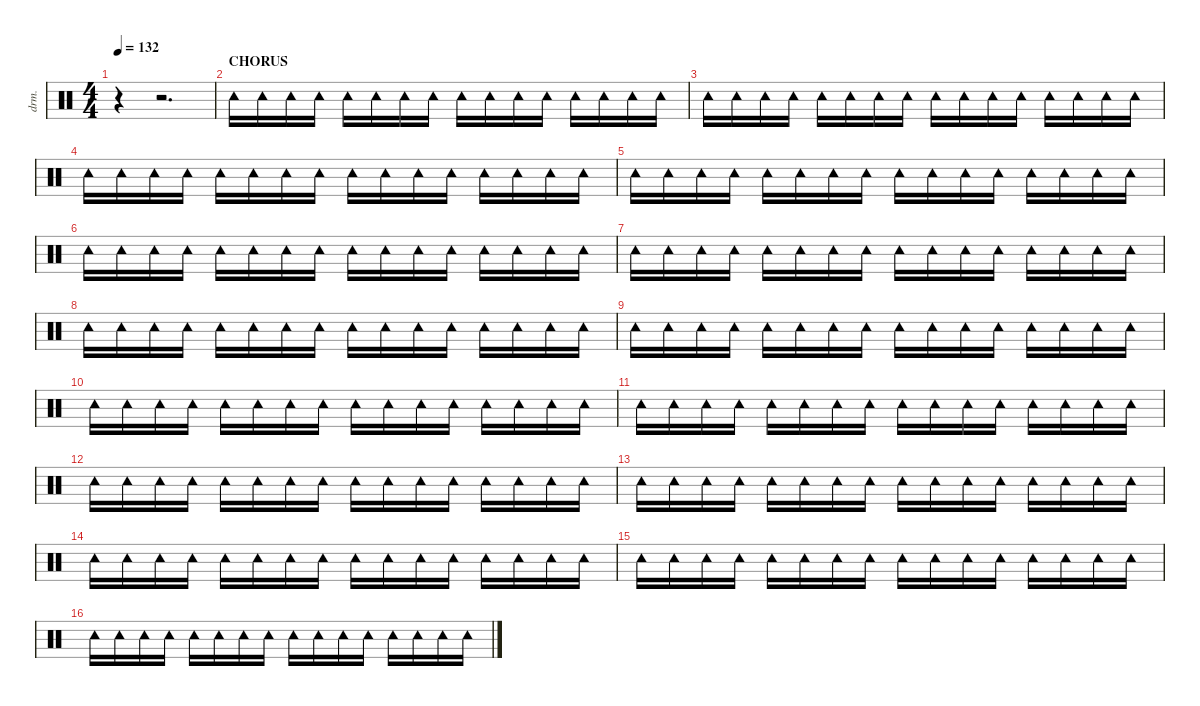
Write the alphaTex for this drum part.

\defaultSystemsLayout 4
\hideDynamics
\bracketExtendMode nobrackets
\otherSystemsTrackNameOrientation horizontal
\track ("Percussion" "drm.") {instrument percussion}
\staff {score}
\articulation defaults
\ts (4 4)
\tempo 132
\clef neutral
\ks c
r.4{dy fff beam Down} r.2{d beam Down} |
\section ("" "CHORUS")
"Tambourine (hit)".16{dy f beam Down} "Tambourine (hit)".16{beam Down} "Tambourine (hit)".16{beam Down} "Tambourine (hit)".16{beam Down} "Tambourine (hit)".16{dy fff beam Down} "Tambourine (hit)".16{dy f beam Down} "Tambourine (hit)".16{beam Down} "Tambourine (hit)".16{beam Down} "Tambourine (hit)".16{beam Down} "Tambourine (hit)".16{beam Down} "Tambourine (hit)".16{beam Down} "Tambourine (hit)".16{beam Down} "Tambourine (hit)".16{dy fff beam Down} "Tambourine (hit)".16{dy f beam Down} "Tambourine (hit)".16{beam Down} "Tambourine (hit)".16{beam Down} |
"Tambourine (hit)".16{beam Down} "Tambourine (hit)".16{beam Down} "Tambourine (hit)".16{beam Down} "Tambourine (hit)".16{beam Down} "Tambourine (hit)".16{dy fff beam Down} "Tambourine (hit)".16{dy f beam Down} "Tambourine (hit)".16{beam Down} "Tambourine (hit)".16{beam Down} "Tambourine (hit)".16{beam Down} "Tambourine (hit)".16{beam Down} "Tambourine (hit)".16{beam Down} "Tambourine (hit)".16{beam Down} "Tambourine (hit)".16{dy fff beam Down} "Tambourine (hit)".16{dy f beam Down} "Tambourine (hit)".16{beam Down} "Tambourine (hit)".16{beam Down} |
"Tambourine (hit)".16{beam Down} "Tambourine (hit)".16{beam Down} "Tambourine (hit)".16{beam Down} "Tambourine (hit)".16{beam Down} "Tambourine (hit)".16{dy fff beam Down} "Tambourine (hit)".16{dy f beam Down} "Tambourine (hit)".16{beam Down} "Tambourine (hit)".16{beam Down} "Tambourine (hit)".16{beam Down} "Tambourine (hit)".16{beam Down} "Tambourine (hit)".16{beam Down} "Tambourine (hit)".16{beam Down} "Tambourine (hit)".16{dy fff beam Down} "Tambourine (hit)".16{dy f beam Down} "Tambourine (hit)".16{beam Down} "Tambourine (hit)".16{beam Down} |
"Tambourine (hit)".16{beam Down} "Tambourine (hit)".16{beam Down} "Tambourine (hit)".16{beam Down} "Tambourine (hit)".16{beam Down} "Tambourine (hit)".16{dy fff beam Down} "Tambourine (hit)".16{dy f beam Down} "Tambourine (hit)".16{beam Down} "Tambourine (hit)".16{beam Down} "Tambourine (hit)".16{beam Down} "Tambourine (hit)".16{beam Down} "Tambourine (hit)".16{beam Down} "Tambourine (hit)".16{beam Down} "Tambourine (hit)".16{dy fff beam Down} "Tambourine (hit)".16{dy f beam Down} "Tambourine (hit)".16{beam Down} "Tambourine (hit)".16{beam Down} |
"Tambourine (hit)".16{beam Down} "Tambourine (hit)".16{beam Down} "Tambourine (hit)".16{beam Down} "Tambourine (hit)".16{beam Down} "Tambourine (hit)".16{dy fff beam Down} "Tambourine (hit)".16{dy f beam Down} "Tambourine (hit)".16{beam Down} "Tambourine (hit)".16{beam Down} "Tambourine (hit)".16{beam Down} "Tambourine (hit)".16{beam Down} "Tambourine (hit)".16{beam Down} "Tambourine (hit)".16{beam Down} "Tambourine (hit)".16{dy fff beam Down} "Tambourine (hit)".16{dy f beam Down} "Tambourine (hit)".16{beam Down} "Tambourine (hit)".16{beam Down} |
"Tambourine (hit)".16{beam Down} "Tambourine (hit)".16{beam Down} "Tambourine (hit)".16{beam Down} "Tambourine (hit)".16{beam Down} "Tambourine (hit)".16{dy fff beam Down} "Tambourine (hit)".16{dy f beam Down} "Tambourine (hit)".16{beam Down} "Tambourine (hit)".16{beam Down} "Tambourine (hit)".16{beam Down} "Tambourine (hit)".16{beam Down} "Tambourine (hit)".16{beam Down} "Tambourine (hit)".16{beam Down} "Tambourine (hit)".16{dy fff beam Down} "Tambourine (hit)".16{dy f beam Down} "Tambourine (hit)".16{beam Down} "Tambourine (hit)".16{beam Down} |
"Tambourine (hit)".16{beam Down} "Tambourine (hit)".16{beam Down} "Tambourine (hit)".16{beam Down} "Tambourine (hit)".16{beam Down} "Tambourine (hit)".16{dy fff beam Down} "Tambourine (hit)".16{dy f beam Down} "Tambourine (hit)".16{beam Down} "Tambourine (hit)".16{beam Down} "Tambourine (hit)".16{beam Down} "Tambourine (hit)".16{beam Down} "Tambourine (hit)".16{beam Down} "Tambourine (hit)".16{beam Down} "Tambourine (hit)".16{dy fff beam Down} "Tambourine (hit)".16{dy f beam Down} "Tambourine (hit)".16{beam Down} "Tambourine (hit)".16{beam Down} |
"Tambourine (hit)".16{beam Down} "Tambourine (hit)".16{beam Down} "Tambourine (hit)".16{beam Down} "Tambourine (hit)".16{beam Down} "Tambourine (hit)".16{dy fff beam Down} "Tambourine (hit)".16{dy f beam Down} "Tambourine (hit)".16{beam Down} "Tambourine (hit)".16{beam Down} "Tambourine (hit)".16{beam Down} "Tambourine (hit)".16{beam Down} "Tambourine (hit)".16{beam Down} "Tambourine (hit)".16{beam Down} "Tambourine (hit)".16{dy fff beam Down} "Tambourine (hit)".16{dy f beam Down} "Tambourine (hit)".16{beam Down} "Tambourine (hit)".16{beam Down} |
"Tambourine (hit)".16{beam Down} "Tambourine (hit)".16{beam Down} "Tambourine (hit)".16{beam Down} "Tambourine (hit)".16{beam Down} "Tambourine (hit)".16{dy fff beam Down} "Tambourine (hit)".16{dy f beam Down} "Tambourine (hit)".16{beam Down} "Tambourine (hit)".16{beam Down} "Tambourine (hit)".16{beam Down} "Tambourine (hit)".16{beam Down} "Tambourine (hit)".16{beam Down} "Tambourine (hit)".16{beam Down} "Tambourine (hit)".16{dy fff beam Down} "Tambourine (hit)".16{dy f beam Down} "Tambourine (hit)".16{beam Down} "Tambourine (hit)".16{beam Down} |
"Tambourine (hit)".16{beam Down} "Tambourine (hit)".16{beam Down} "Tambourine (hit)".16{beam Down} "Tambourine (hit)".16{beam Down} "Tambourine (hit)".16{dy fff beam Down} "Tambourine (hit)".16{dy f beam Down} "Tambourine (hit)".16{beam Down} "Tambourine (hit)".16{beam Down} "Tambourine (hit)".16{beam Down} "Tambourine (hit)".16{beam Down} "Tambourine (hit)".16{beam Down} "Tambourine (hit)".16{beam Down} "Tambourine (hit)".16{dy fff beam Down} "Tambourine (hit)".16{dy f beam Down} "Tambourine (hit)".16{beam Down} "Tambourine (hit)".16{beam Down} |
"Tambourine (hit)".16{beam Down} "Tambourine (hit)".16{beam Down} "Tambourine (hit)".16{beam Down} "Tambourine (hit)".16{beam Down} "Tambourine (hit)".16{dy fff beam Down} "Tambourine (hit)".16{dy f beam Down} "Tambourine (hit)".16{beam Down} "Tambourine (hit)".16{beam Down} "Tambourine (hit)".16{beam Down} "Tambourine (hit)".16{beam Down} "Tambourine (hit)".16{beam Down} "Tambourine (hit)".16{beam Down} "Tambourine (hit)".16{dy fff beam Down} "Tambourine (hit)".16{dy f beam Down} "Tambourine (hit)".16{beam Down} "Tambourine (hit)".16{beam Down} |
"Tambourine (hit)".16{beam Down} "Tambourine (hit)".16{beam Down} "Tambourine (hit)".16{beam Down} "Tambourine (hit)".16{beam Down} "Tambourine (hit)".16{dy fff beam Down} "Tambourine (hit)".16{dy f beam Down} "Tambourine (hit)".16{beam Down} "Tambourine (hit)".16{beam Down} "Tambourine (hit)".16{beam Down} "Tambourine (hit)".16{beam Down} "Tambourine (hit)".16{beam Down} "Tambourine (hit)".16{beam Down} "Tambourine (hit)".16{dy fff beam Down} "Tambourine (hit)".16{dy f beam Down} "Tambourine (hit)".16{beam Down} "Tambourine (hit)".16{beam Down} |
"Tambourine (hit)".16{beam Down} "Tambourine (hit)".16{beam Down} "Tambourine (hit)".16{beam Down} "Tambourine (hit)".16{beam Down} "Tambourine (hit)".16{dy fff beam Down} "Tambourine (hit)".16{dy f beam Down} "Tambourine (hit)".16{beam Down} "Tambourine (hit)".16{beam Down} "Tambourine (hit)".16{beam Down} "Tambourine (hit)".16{beam Down} "Tambourine (hit)".16{beam Down} "Tambourine (hit)".16{beam Down} "Tambourine (hit)".16{dy fff beam Down} "Tambourine (hit)".16{dy f beam Down} "Tambourine (hit)".16{beam Down} "Tambourine (hit)".16{beam Down} |
"Tambourine (hit)".16{beam Down} "Tambourine (hit)".16{beam Down} "Tambourine (hit)".16{beam Down} "Tambourine (hit)".16{beam Down} "Tambourine (hit)".16{dy fff beam Down} "Tambourine (hit)".16{dy f beam Down} "Tambourine (hit)".16{beam Down} "Tambourine (hit)".16{beam Down} "Tambourine (hit)".16{beam Down} "Tambourine (hit)".16{beam Down} "Tambourine (hit)".16{beam Down} "Tambourine (hit)".16{beam Down} "Tambourine (hit)".16{dy fff beam Down} "Tambourine (hit)".16{dy f beam Down} "Tambourine (hit)".16{beam Down} "Tambourine (hit)".16{beam Down} |
"Tambourine (hit)".16{beam Down} "Tambourine (hit)".16{beam Down} "Tambourine (hit)".16{beam Down} "Tambourine (hit)".16{beam Down} "Tambourine (hit)".16{dy fff beam Down} "Tambourine (hit)".16{dy f beam Down} "Tambourine (hit)".16{beam Down} "Tambourine (hit)".16{beam Down} "Tambourine (hit)".16{beam Down} "Tambourine (hit)".16{beam Down} "Tambourine (hit)".16{beam Down} "Tambourine (hit)".16{beam Down} "Tambourine (hit)".16{dy fff beam Down} "Tambourine (hit)".16{dy f beam Down} "Tambourine (hit)".16{beam Down} "Tambourine (hit)".16{beam Down}
